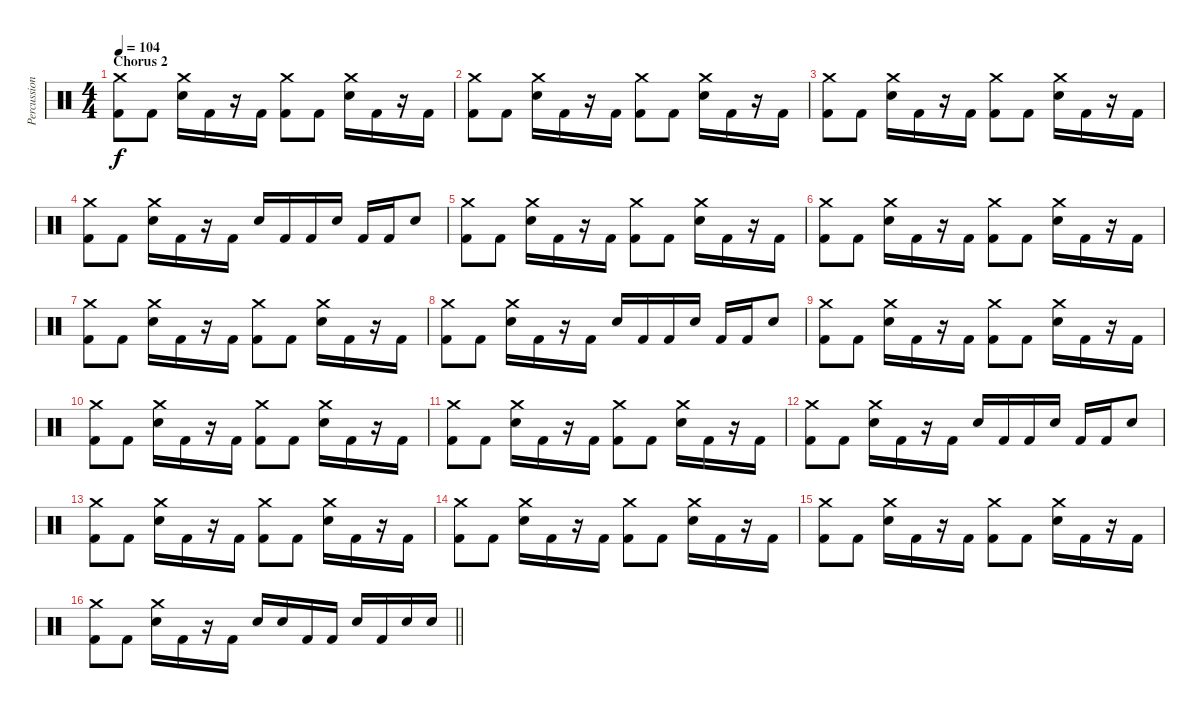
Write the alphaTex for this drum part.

\track ("Percussioni" "Percussion") {instrument percussion}
\staff {score}
\articulation defaults
\ts (4 4)
\section ("" "Chorus 2")
\tempo 104
\clef neutral
\ks c
("Crash medium (hit)" "Kick (hit) 2").8{dy f} "Kick (hit) 2".8 ("Crash medium (hit)" "Electric Snare (hit)").16 "Kick (hit) 2".16 r.16 "Kick (hit) 2".16 ("Crash medium (hit)" "Kick (hit) 2").8 "Kick (hit) 2".8 ("Crash medium (hit)" "Electric Snare (hit)").16 "Kick (hit) 2".16 r.16 "Kick (hit) 2".16 |
("Crash medium (hit)" "Kick (hit) 2").8 "Kick (hit) 2".8 ("Crash medium (hit)" "Electric Snare (hit)").16 "Kick (hit) 2".16 r.16 "Kick (hit) 2".16 ("Crash medium (hit)" "Kick (hit) 2").8 "Kick (hit) 2".8 ("Crash medium (hit)" "Electric Snare (hit)").16 "Kick (hit) 2".16 r.16 "Kick (hit) 2".16 |
("Crash medium (hit)" "Kick (hit) 2").8 "Kick (hit) 2".8 ("Crash medium (hit)" "Electric Snare (hit)").16 "Kick (hit) 2".16 r.16 "Kick (hit) 2".16 ("Crash medium (hit)" "Kick (hit) 2").8 "Kick (hit) 2".8 ("Crash medium (hit)" "Electric Snare (hit)").16 "Kick (hit) 2".16 r.16 "Kick (hit) 2".16 |
("Crash medium (hit)" "Kick (hit) 2").8 "Kick (hit) 2".8 ("Crash medium (hit)" "Electric Snare (hit)").16 "Kick (hit) 2".16 r.16 "Kick (hit) 2".16 "Electric Snare (hit)".16 "Kick (hit) 2".16 "Kick (hit) 2".16 "Electric Snare (hit)".16 "Kick (hit) 2".16 "Kick (hit) 2".16 "Electric Snare (hit)".8 |
("Crash medium (hit)" "Kick (hit) 2").8 "Kick (hit) 2".8 ("Crash medium (hit)" "Electric Snare (hit)").16 "Kick (hit) 2".16 r.16 "Kick (hit) 2".16 ("Crash medium (hit)" "Kick (hit) 2").8 "Kick (hit) 2".8 ("Crash medium (hit)" "Electric Snare (hit)").16 "Kick (hit) 2".16 r.16 "Kick (hit) 2".16 |
("Crash medium (hit)" "Kick (hit) 2").8 "Kick (hit) 2".8 ("Crash medium (hit)" "Electric Snare (hit)").16 "Kick (hit) 2".16 r.16 "Kick (hit) 2".16 ("Crash medium (hit)" "Kick (hit) 2").8 "Kick (hit) 2".8 ("Crash medium (hit)" "Electric Snare (hit)").16 "Kick (hit) 2".16 r.16 "Kick (hit) 2".16 |
("Crash medium (hit)" "Kick (hit) 2").8 "Kick (hit) 2".8 ("Crash medium (hit)" "Electric Snare (hit)").16 "Kick (hit) 2".16 r.16 "Kick (hit) 2".16 ("Crash medium (hit)" "Kick (hit) 2").8 "Kick (hit) 2".8 ("Crash medium (hit)" "Electric Snare (hit)").16 "Kick (hit) 2".16 r.16 "Kick (hit) 2".16 |
("Crash medium (hit)" "Kick (hit) 2").8 "Kick (hit) 2".8 ("Crash medium (hit)" "Electric Snare (hit)").16 "Kick (hit) 2".16 r.16 "Kick (hit) 2".16 "Electric Snare (hit)".16 "Kick (hit) 2".16 "Kick (hit) 2".16 "Electric Snare (hit)".16 "Kick (hit) 2".16 "Kick (hit) 2".16 "Electric Snare (hit)".8 |
("Crash medium (hit)" "Kick (hit) 2").8 "Kick (hit) 2".8 ("Crash medium (hit)" "Electric Snare (hit)").16 "Kick (hit) 2".16 r.16 "Kick (hit) 2".16 ("Crash medium (hit)" "Kick (hit) 2").8 "Kick (hit) 2".8 ("Crash medium (hit)" "Electric Snare (hit)").16 "Kick (hit) 2".16 r.16 "Kick (hit) 2".16 |
("Crash medium (hit)" "Kick (hit) 2").8 "Kick (hit) 2".8 ("Crash medium (hit)" "Electric Snare (hit)").16 "Kick (hit) 2".16 r.16 "Kick (hit) 2".16 ("Crash medium (hit)" "Kick (hit) 2").8 "Kick (hit) 2".8 ("Crash medium (hit)" "Electric Snare (hit)").16 "Kick (hit) 2".16 r.16 "Kick (hit) 2".16 |
("Crash medium (hit)" "Kick (hit) 2").8 "Kick (hit) 2".8 ("Crash medium (hit)" "Electric Snare (hit)").16 "Kick (hit) 2".16 r.16 "Kick (hit) 2".16 ("Crash medium (hit)" "Kick (hit) 2").8 "Kick (hit) 2".8 ("Crash medium (hit)" "Electric Snare (hit)").16 "Kick (hit) 2".16 r.16 "Kick (hit) 2".16 |
("Crash medium (hit)" "Kick (hit) 2").8 "Kick (hit) 2".8 ("Crash medium (hit)" "Electric Snare (hit)").16 "Kick (hit) 2".16 r.16 "Kick (hit) 2".16 "Electric Snare (hit)".16 "Kick (hit) 2".16 "Kick (hit) 2".16 "Electric Snare (hit)".16 "Kick (hit) 2".16 "Kick (hit) 2".16 "Electric Snare (hit)".8 |
("Crash medium (hit)" "Kick (hit) 2").8 "Kick (hit) 2".8 ("Crash medium (hit)" "Electric Snare (hit)").16 "Kick (hit) 2".16 r.16 "Kick (hit) 2".16 ("Crash medium (hit)" "Kick (hit) 2").8 "Kick (hit) 2".8 ("Crash medium (hit)" "Electric Snare (hit)").16 "Kick (hit) 2".16 r.16 "Kick (hit) 2".16 |
("Crash medium (hit)" "Kick (hit) 2").8 "Kick (hit) 2".8 ("Crash medium (hit)" "Electric Snare (hit)").16 "Kick (hit) 2".16 r.16 "Kick (hit) 2".16 ("Crash medium (hit)" "Kick (hit) 2").8 "Kick (hit) 2".8 ("Crash medium (hit)" "Electric Snare (hit)").16 "Kick (hit) 2".16 r.16 "Kick (hit) 2".16 |
("Crash medium (hit)" "Kick (hit) 2").8 "Kick (hit) 2".8 ("Crash medium (hit)" "Electric Snare (hit)").16 "Kick (hit) 2".16 r.16 "Kick (hit) 2".16 ("Crash medium (hit)" "Kick (hit) 2").8 "Kick (hit) 2".8 ("Crash medium (hit)" "Electric Snare (hit)").16 "Kick (hit) 2".16 r.16 "Kick (hit) 2".16 |
\barLineRight lightlight
("Crash medium (hit)" "Kick (hit) 2").8 "Kick (hit) 2".8 ("Crash medium (hit)" "Electric Snare (hit)").16 "Kick (hit) 2".16 r.16 "Kick (hit) 2".16 "Electric Snare (hit)".16 "Electric Snare (hit)".16 "Kick (hit) 2".16 "Kick (hit) 2".16 "Electric Snare (hit)".16 "Kick (hit) 2".16 "Electric Snare (hit)".16 "Electric Snare (hit)".16
